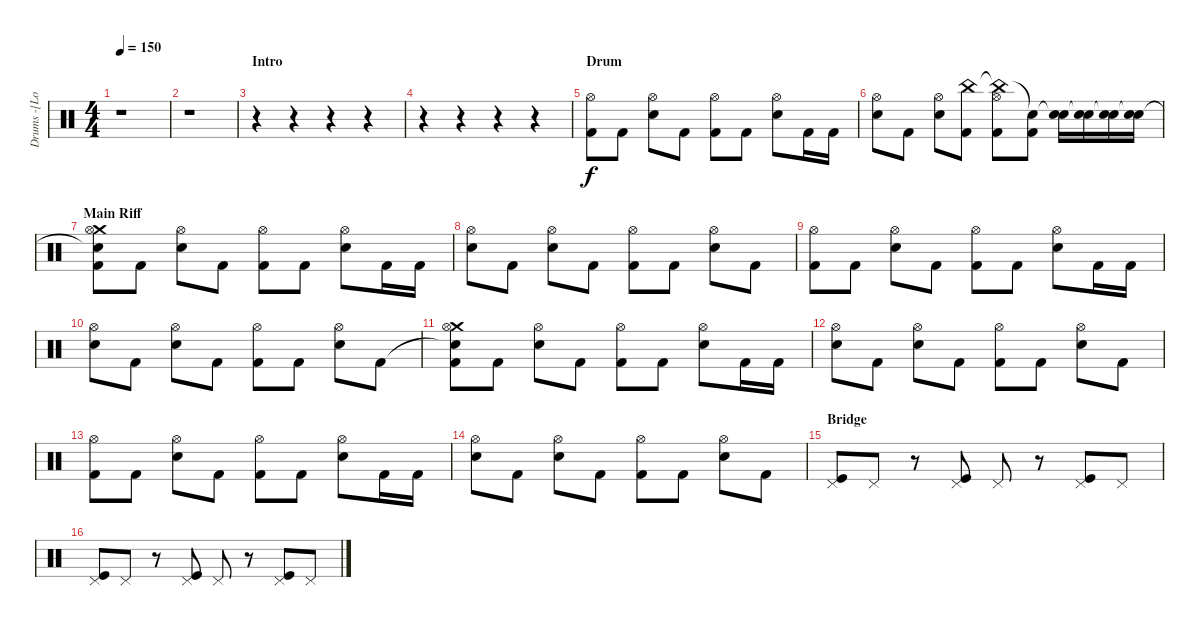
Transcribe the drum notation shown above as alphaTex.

\track ("Drums -[Lorenz]-" "Drums -[Lo") {instrument percussion}
\staff {score}
\articulation defaults
\ts (4 4)
\tempo 150
\clef neutral
\ks c
r.1{dy f} |
r.1 |
\section ("" "Intro")
r.4 r.4 r.4 r.4 |
r.4 r.4 r.4 r.4 |
\section ("" "Drum")
("Hi-Hat (open)" "Kick (hit) 2").8 "Kick (hit) 2".8 ("Hi-Hat (open)" "Electric Snare (hit)").8 "Kick (hit) 2".8 ("Hi-Hat (open)" "Kick (hit) 2").8 "Kick (hit) 2".8 ("Hi-Hat (open)" "Electric Snare (hit)").8 "Kick (hit) 2".16 "Kick (hit) 2".16 |
("Hi-Hat (open)" "Electric Snare (hit)").8 "Kick (hit) 2".8 ("Hi-Hat (open)" "Electric Snare (hit)").8 ("China (hit)" "Kick (hit) 2").8 ("China (hit)"{t} "Hi-Hat (open)" "Kick (hit) 2").8 ("Snare (hit)"{t} "Kick (hit) 2").8 ("Snare (hit)"{t} "Electric Snare (hit)").16 ("Snare (hit)"{t} "Electric Snare (hit)").16 ("Snare (hit)"{t} "Electric Snare (hit)").16 ("Snare (hit)"{t} "Electric Snare (hit)").16 |
\section ("" "Main Riff")
("Snare (hit)"{t} "Crash medium (hit)" "Hi-Hat (open)" "Kick (hit) 2").8 "Kick (hit) 2".8 ("Hi-Hat (open)" "Electric Snare (hit)").8 "Kick (hit) 2".8 ("Hi-Hat (open)" "Kick (hit) 2").8 "Kick (hit) 2".8 ("Hi-Hat (open)" "Electric Snare (hit)").8 "Kick (hit) 2".16 "Kick (hit) 2".16 |
("Hi-Hat (open)" "Electric Snare (hit)").8 "Kick (hit) 2".8 ("Hi-Hat (open)" "Electric Snare (hit)").8 "Kick (hit) 2".8 ("Hi-Hat (open)" "Kick (hit) 2").8 "Kick (hit) 2".8 ("Hi-Hat (open)" "Electric Snare (hit)").8 "Kick (hit) 2".8 |
("Hi-Hat (open)" "Kick (hit) 2").8 "Kick (hit) 2".8 ("Hi-Hat (open)" "Electric Snare (hit)").8 "Kick (hit) 2".8 ("Hi-Hat (open)" "Kick (hit) 2").8 "Kick (hit) 2".8 ("Hi-Hat (open)" "Electric Snare (hit)").8 "Kick (hit) 2".16 "Kick (hit) 2".16 |
("Hi-Hat (open)" "Electric Snare (hit)").8 "Kick (hit) 2".8 ("Hi-Hat (open)" "Electric Snare (hit)").8 "Kick (hit) 2".8 ("Hi-Hat (open)" "Kick (hit) 2").8 "Kick (hit) 2".8 ("Hi-Hat (open)" "Electric Snare (hit)").8 "Kick (hit) 2".8 |
("Snare (hit)"{t} "Crash medium (hit)" "Hi-Hat (open)" "Kick (hit) 2").8 "Kick (hit) 2".8 ("Hi-Hat (open)" "Electric Snare (hit)").8 "Kick (hit) 2".8 ("Hi-Hat (open)" "Kick (hit) 2").8 "Kick (hit) 2".8 ("Hi-Hat (open)" "Electric Snare (hit)").8 "Kick (hit) 2".16 "Kick (hit) 2".16 |
("Hi-Hat (open)" "Electric Snare (hit)").8 "Kick (hit) 2".8 ("Hi-Hat (open)" "Electric Snare (hit)").8 "Kick (hit) 2".8 ("Hi-Hat (open)" "Kick (hit) 2").8 "Kick (hit) 2".8 ("Hi-Hat (open)" "Electric Snare (hit)").8 "Kick (hit) 2".8 |
("Hi-Hat (open)" "Kick (hit) 2").8 "Kick (hit) 2".8 ("Hi-Hat (open)" "Electric Snare (hit)").8 "Kick (hit) 2".8 ("Hi-Hat (open)" "Kick (hit) 2").8 "Kick (hit) 2".8 ("Hi-Hat (open)" "Electric Snare (hit)").8 "Kick (hit) 2".16 "Kick (hit) 2".16 |
("Hi-Hat (open)" "Electric Snare (hit)").8 "Kick (hit) 2".8 ("Hi-Hat (open)" "Electric Snare (hit)").8 "Kick (hit) 2".8 ("Hi-Hat (open)" "Kick (hit) 2").8 "Kick (hit) 2".8 ("Hi-Hat (open)" "Electric Snare (hit)").8 "Kick (hit) 2".8 |
\section ("" "Bridge")
("Pedal Hi-Hat (hit)" "Kick (hit)").8 "Pedal Hi-Hat (hit)".8 r.8 ("Pedal Hi-Hat (hit)" "Kick (hit)").8 "Pedal Hi-Hat (hit)".8 r.8 ("Pedal Hi-Hat (hit)" "Kick (hit)").8 "Pedal Hi-Hat (hit)".8 |
("Pedal Hi-Hat (hit)" "Kick (hit)").8 "Pedal Hi-Hat (hit)".8 r.8 ("Pedal Hi-Hat (hit)" "Kick (hit)").8 "Pedal Hi-Hat (hit)".8 r.8 ("Pedal Hi-Hat (hit)" "Kick (hit)").8 "Pedal Hi-Hat (hit)".8
